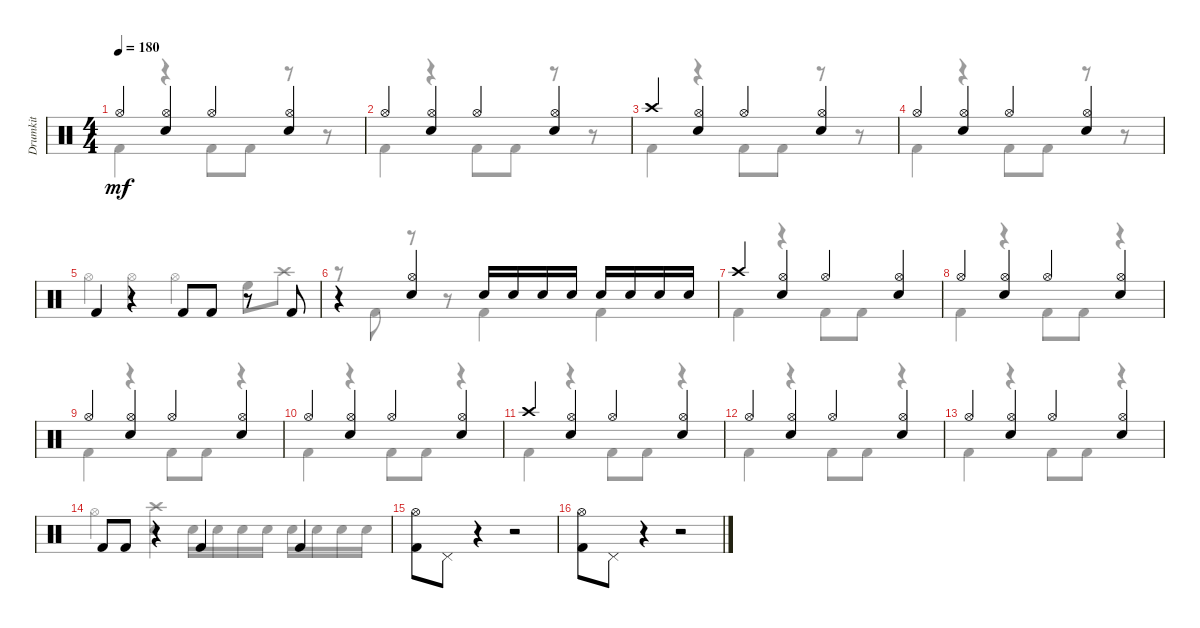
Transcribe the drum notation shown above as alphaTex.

\track ("Drumkit" "Drumkit") {instrument percussion}
\staff {score}
\articulation defaults
\voice
\ts (4 4)
\tempo 180
\clef neutral
\ks c "Hi-Hat (open)".4{dy mf}
("Hi-Hat (open)" "Snare (hit) 2").4 "Hi-Hat (open)".4 ("Hi-Hat (open)" "Snare (hit) 2").4 |
"Hi-Hat (open)".4 ("Hi-Hat (open)" "Snare (hit) 2").4 "Hi-Hat (open)".4 ("Hi-Hat (open)" "Snare (hit) 2").4 |
"Crash high (hit)".4 ("Hi-Hat (open)" "Snare (hit) 2").4 "Hi-Hat (open)".4 ("Hi-Hat (open)" "Snare (hit) 2").4 |
"Hi-Hat (open)".4 ("Hi-Hat (open)" "Snare (hit) 2").4 "Hi-Hat (open)".4 ("Hi-Hat (open)" "Snare (hit) 2").4 |
"Kick (hit) 2".4 r.4 "Kick (hit) 2".8 "Kick (hit) 2".8 r.8 "Kick (hit) 2".8 |
r.4 ("Hi-Hat (open)" "Snare (hit) 2").4 "Snare (hit) 2".16 "Snare (hit) 2".16 "Snare (hit) 2".16 "Snare (hit) 2".16 "Snare (hit) 2".16 "Snare (hit) 2".16 "Snare (hit) 2".16 "Snare (hit) 2".16 |
"Crash high (hit)".4 ("Hi-Hat (open)" "Snare (hit) 2").4 "Hi-Hat (open)".4 ("Hi-Hat (open)" "Snare (hit) 2").4 |
"Hi-Hat (open)".4 ("Hi-Hat (open)" "Snare (hit) 2").4 "Hi-Hat (open)".4 ("Hi-Hat (open)" "Snare (hit) 2").4 |
"Hi-Hat (open)".4 ("Hi-Hat (open)" "Snare (hit) 2").4 "Hi-Hat (open)".4 ("Hi-Hat (open)" "Snare (hit) 2").4 |
"Hi-Hat (open)".4 ("Hi-Hat (open)" "Snare (hit) 2").4 "Hi-Hat (open)".4 ("Hi-Hat (open)" "Snare (hit) 2").4 |
"Crash high (hit)".4 ("Hi-Hat (open)" "Snare (hit) 2").4 "Hi-Hat (open)".4 ("Hi-Hat (open)" "Snare (hit) 2").4 |
"Hi-Hat (open)".4 ("Hi-Hat (open)" "Snare (hit) 2").4 "Hi-Hat (open)".4 ("Hi-Hat (open)" "Snare (hit) 2").4 |
"Hi-Hat (open)".4 ("Hi-Hat (open)" "Snare (hit) 2").4 "Hi-Hat (open)".4 ("Hi-Hat (open)" "Snare (hit) 2").4 |
"Kick (hit) 2".8 "Kick (hit) 2".8 r.4 "Kick (hit) 2".4 "Kick (hit) 2".4 |
("Hi-Hat (open)" "Kick (hit) 2").8 "Pedal Hi-Hat (hit)".8 r.4 r.2 |
("Hi-Hat (open)" "Kick (hit) 2").8 "Pedal Hi-Hat (hit)".8 r.4 r.2
\voice
\clef neutral
\ottava regular
\simile none
\ks c "Kick (hit) 2".4{dy mf}
r.4 "Kick (hit) 2".8 "Kick (hit) 2".8 r.8 r.8 |
"Kick (hit) 2".4 r.4 "Kick (hit) 2".8 "Kick (hit) 2".8 r.8 r.8 |
"Kick (hit) 2".4 r.4 "Kick (hit) 2".8 "Kick (hit) 2".8 r.8 r.8 |
"Kick (hit) 2".4 r.4 "Kick (hit) 2".8 "Kick (hit) 2".8 r.8 r.8 |
"Hi-Hat (open)".4 "Hi-Hat (open)".4 "Hi-Hat (open)".4 "High Floor Tom (hit)".8 "Crash high (hit)".8 |
r.8 "Kick (hit) 2".8 r.8 r.8 "Kick (hit) 2".4 "Kick (hit) 2".4 |
"Kick (hit) 2".4 r.4 "Kick (hit) 2".8 "Kick (hit) 2".8 |
"Kick (hit) 2".4 r.4 "Kick (hit) 2".8 "Kick (hit) 2".8 r.4 |
"Kick (hit) 2".4 r.4 "Kick (hit) 2".8 "Kick (hit) 2".8 r.4 |
"Kick (hit) 2".4 r.4 "Kick (hit) 2".8 "Kick (hit) 2".8 r.4 |
"Kick (hit) 2".4 r.4 "Kick (hit) 2".8 "Kick (hit) 2".8 r.4 |
"Kick (hit) 2".4 r.4 "Kick (hit) 2".8 "Kick (hit) 2".8 r.4 |
"Kick (hit) 2".4 r.4 "Kick (hit) 2".8 "Kick (hit) 2".8 r.4 |
"Hi-Hat (open)".4 ("Crash high (hit)" "Snare (hit) 2").4 "Snare (hit) 2".16 "Snare (hit) 2".16 "Snare (hit) 2".16 "Snare (hit) 2".16 "Snare (hit) 2".16 "Snare (hit) 2".16 "Snare (hit) 2".16 "Snare (hit) 2".16 |
|
